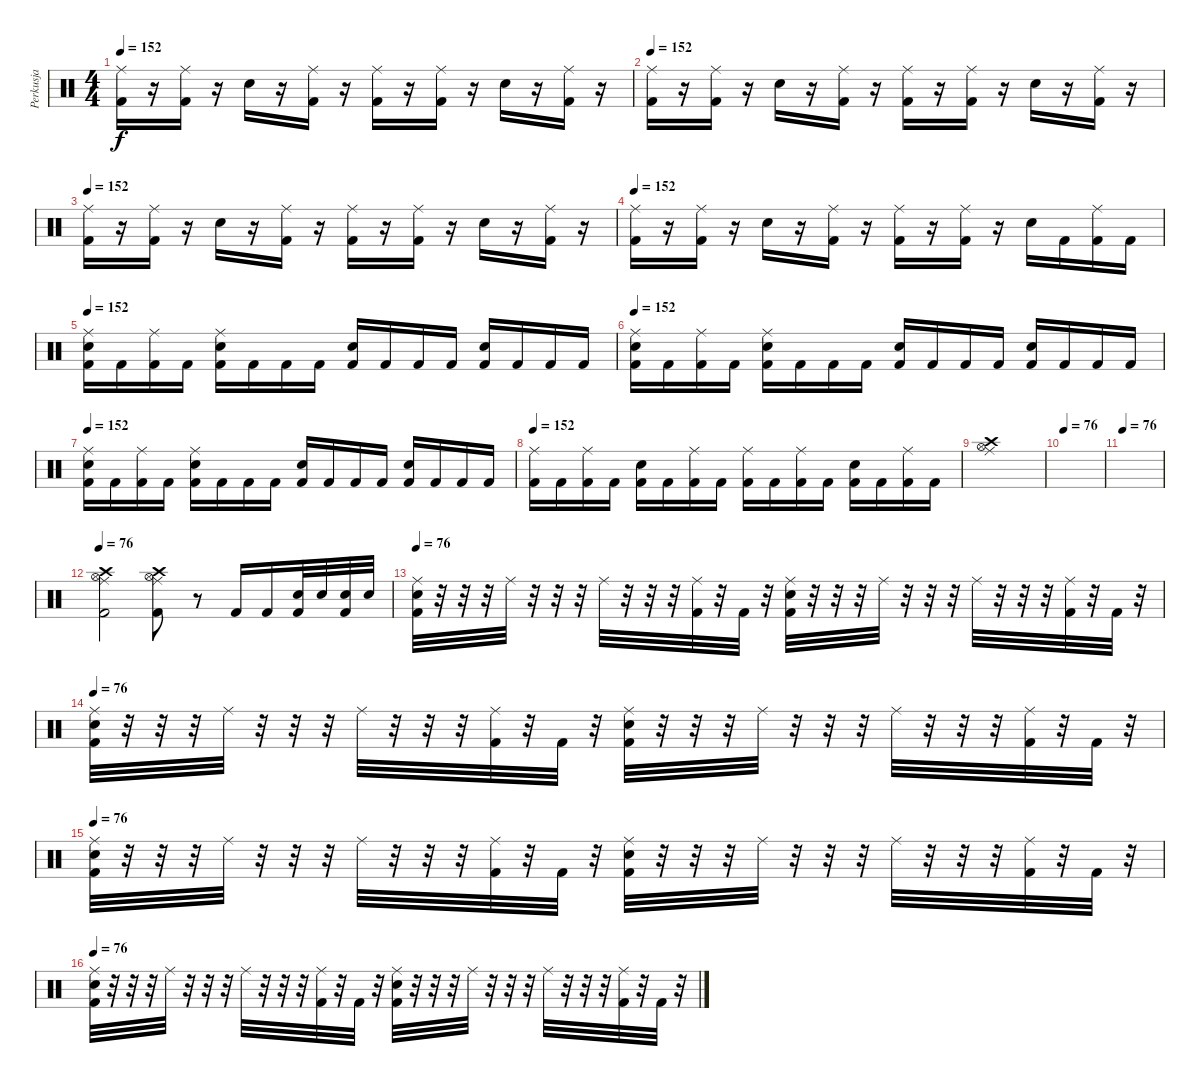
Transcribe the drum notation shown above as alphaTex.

\track ("Perkusja" "Perkusja") {instrument percussion}
\staff {score}
\articulation defaults
\ts (4 4)
\tempo 152
\clef neutral
\ks c
("Ride (middle)" "Kick (hit) 2").16{dy f} r.16 ("Ride (middle)" "Kick (hit) 2").16 r.16 "Snare (hit) 2".16 r.16 ("Ride (middle)" "Kick (hit) 2").16 r.16 ("Ride (middle)" "Kick (hit) 2").16 r.16 ("Ride (middle)" "Kick (hit) 2").16 r.16 "Snare (hit) 2".16 r.16 ("Ride (middle)" "Kick (hit) 2").16 r.16 |
\tempo 152
("Ride (middle)" "Kick (hit) 2").16 r.16 ("Ride (middle)" "Kick (hit) 2").16 r.16 "Snare (hit) 2".16 r.16 ("Ride (middle)" "Kick (hit) 2").16 r.16 ("Ride (middle)" "Kick (hit) 2").16 r.16 ("Ride (middle)" "Kick (hit) 2").16 r.16 "Snare (hit) 2".16 r.16 ("Ride (middle)" "Kick (hit) 2").16 r.16 |
\tempo 152
("Ride (middle)" "Kick (hit) 2").16 r.16 ("Ride (middle)" "Kick (hit) 2").16 r.16 "Snare (hit) 2".16 r.16 ("Ride (middle)" "Kick (hit) 2").16 r.16 ("Ride (middle)" "Kick (hit) 2").16 r.16 ("Ride (middle)" "Kick (hit) 2").16 r.16 "Snare (hit) 2".16 r.16 ("Ride (middle)" "Kick (hit) 2").16 r.16 |
\tempo 152
("Ride (middle)" "Kick (hit) 2").16 r.16 ("Ride (middle)" "Kick (hit) 2").16 r.16 "Snare (hit) 2".16 r.16 ("Ride (middle)" "Kick (hit) 2").16 r.16 ("Ride (middle)" "Kick (hit) 2").16 r.16 ("Ride (middle)" "Kick (hit) 2").16 r.16 "Snare (hit) 2".16 "Kick (hit) 2".16 ("Ride (middle)" "Kick (hit) 2").16 "Kick (hit) 2".16 |
\tempo 152
("Ride (middle)" "Kick (hit) 2" "Snare (hit) 2").16 "Kick (hit) 2".16 ("Ride (middle)" "Kick (hit) 2").16 "Kick (hit) 2".16 ("Ride (middle)" "Kick (hit) 2" "Snare (hit) 2").16 "Kick (hit) 2".16 "Kick (hit) 2".16 "Kick (hit) 2".16 ("Kick (hit) 2" "Snare (hit) 2").16 "Kick (hit) 2".16 "Kick (hit) 2".16 "Kick (hit) 2".16 ("Kick (hit) 2" "Snare (hit) 2").16 "Kick (hit) 2".16 "Kick (hit) 2".16 "Kick (hit) 2".16 |
\tempo 152
("Ride (middle)" "Kick (hit) 2" "Snare (hit) 2").16 "Kick (hit) 2".16 ("Ride (middle)" "Kick (hit) 2").16 "Kick (hit) 2".16 ("Ride (middle)" "Kick (hit) 2" "Snare (hit) 2").16 "Kick (hit) 2".16 "Kick (hit) 2".16 "Kick (hit) 2".16 ("Kick (hit) 2" "Snare (hit) 2").16 "Kick (hit) 2".16 "Kick (hit) 2".16 "Kick (hit) 2".16 ("Kick (hit) 2" "Snare (hit) 2").16 "Kick (hit) 2".16 "Kick (hit) 2".16 "Kick (hit) 2".16 |
\tempo 152
("Ride (middle)" "Kick (hit) 2" "Snare (hit) 2").16 "Kick (hit) 2".16 ("Ride (middle)" "Kick (hit) 2").16 "Kick (hit) 2".16 ("Ride (middle)" "Kick (hit) 2" "Snare (hit) 2").16 "Kick (hit) 2".16 "Kick (hit) 2".16 "Kick (hit) 2".16 ("Kick (hit) 2" "Snare (hit) 2").16 "Kick (hit) 2".16 "Kick (hit) 2".16 "Kick (hit) 2".16 ("Kick (hit) 2" "Snare (hit) 2").16 "Kick (hit) 2".16 "Kick (hit) 2".16 "Kick (hit) 2".16 |
\tempo 152
("Ride (middle)" "Kick (hit) 2").16 "Kick (hit) 2".16 ("Ride (middle)" "Kick (hit) 2").16 "Kick (hit) 2".16 ("Snare (hit) 2" "Kick (hit) 2").16 "Kick (hit) 2".16 ("Ride (middle)" "Kick (hit) 2").16 "Kick (hit) 2".16 ("Ride (middle)" "Kick (hit) 2").16 "Kick (hit) 2".16 ("Ride (middle)" "Kick (hit) 2").16 "Kick (hit) 2".16 ("Snare (hit) 2" "Kick (hit) 2").16 "Kick (hit) 2".16 ("Ride (middle)" "Kick (hit) 2").16 "Kick (hit) 2".16 |
("Ride (middle)" "Hi-Hat (open)" "Crash high (hit)").1 |
\tempo 76
|
\tempo 76
|
\tempo 76
("Ride (middle)" "Hi-Hat (open)" "Crash high (hit)" "Kick (hit) 2").2 ("Ride (middle)" "Hi-Hat (open)" "Crash high (hit)" "Kick (hit) 2").8 r.8 "Kick (hit) 2".16 "Kick (hit) 2".16 ("Snare (hit) 2" "Kick (hit) 2").32 "Snare (hit) 2".32 ("Snare (hit) 2" "Kick (hit) 2").32 "Snare (hit) 2".32 |
\tempo 76
("Ride (middle)" "Snare (hit) 2" "Kick (hit) 2").32 r.32 r.32 r.32 "Ride (middle)".32 r.32 r.32 r.32 "Ride (middle)".32 r.32 r.32 r.32 ("Ride (middle)" "Kick (hit) 2").32 r.32 "Kick (hit) 2".32 r.32 ("Ride (middle)" "Snare (hit) 2" "Kick (hit) 2").32 r.32 r.32 r.32 "Ride (middle)".32 r.32 r.32 r.32 "Ride (middle)".32 r.32 r.32 r.32 ("Ride (middle)" "Kick (hit) 2").32 r.32 "Kick (hit) 2".32 r.32 |
\tempo 76
("Ride (middle)" "Snare (hit) 2" "Kick (hit) 2").32 r.32 r.32 r.32 "Ride (middle)".32 r.32 r.32 r.32 "Ride (middle)".32 r.32 r.32 r.32 ("Ride (middle)" "Kick (hit) 2").32 r.32 "Kick (hit) 2".32 r.32 ("Ride (middle)" "Snare (hit) 2" "Kick (hit) 2").32 r.32 r.32 r.32 "Ride (middle)".32 r.32 r.32 r.32 "Ride (middle)".32 r.32 r.32 r.32 ("Ride (middle)" "Kick (hit) 2").32 r.32 "Kick (hit) 2".32 r.32 |
\tempo 76
("Ride (middle)" "Snare (hit) 2" "Kick (hit) 2").32 r.32 r.32 r.32 "Ride (middle)".32 r.32 r.32 r.32 "Ride (middle)".32 r.32 r.32 r.32 ("Ride (middle)" "Kick (hit) 2").32 r.32 "Kick (hit) 2".32 r.32 ("Ride (middle)" "Snare (hit) 2" "Kick (hit) 2").32 r.32 r.32 r.32 "Ride (middle)".32 r.32 r.32 r.32 "Ride (middle)".32 r.32 r.32 r.32 ("Ride (middle)" "Kick (hit) 2").32 r.32 "Kick (hit) 2".32 r.32 |
\tempo 76
("Ride (middle)" "Snare (hit) 2" "Kick (hit) 2").32 r.32 r.32 r.32 "Ride (middle)".32 r.32 r.32 r.32 "Ride (middle)".32 r.32 r.32 r.32 ("Ride (middle)" "Kick (hit) 2").32 r.32 "Kick (hit) 2".32 r.32 ("Ride (middle)" "Snare (hit) 2" "Kick (hit) 2").32 r.32 r.32 r.32 "Ride (middle)".32 r.32 r.32 r.32 "Ride (middle)".32 r.32 r.32 r.32 ("Ride (middle)" "Kick (hit) 2").32 r.32 "Kick (hit) 2".32 r.32
